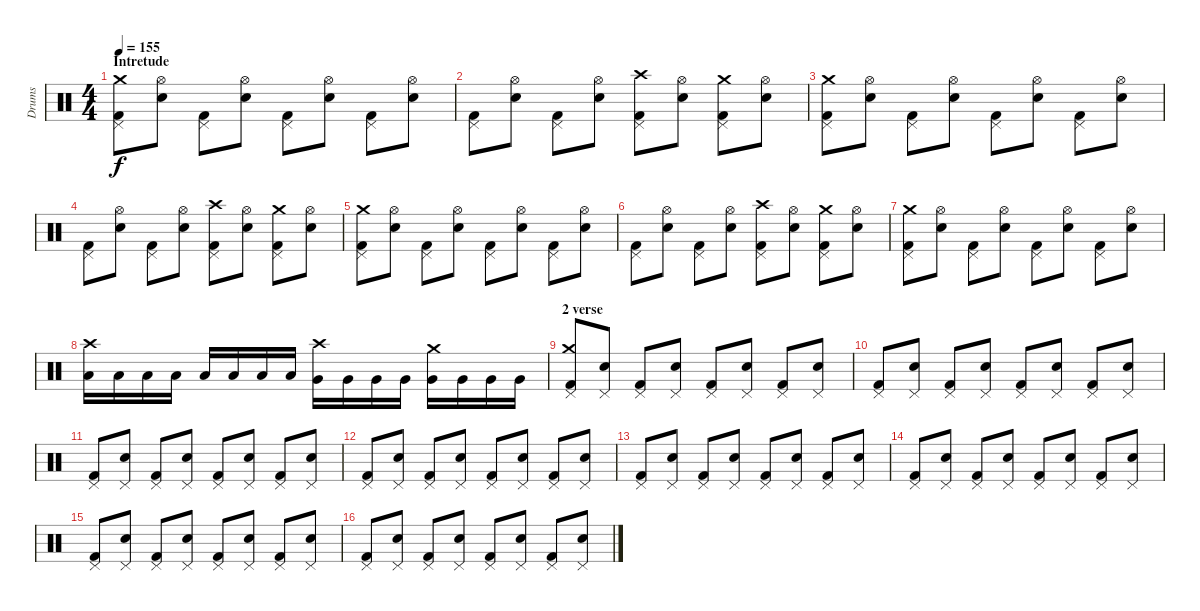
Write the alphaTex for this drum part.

\track ("Drums" "Drums") {instrument percussion}
\staff {score}
\articulation defaults
\ts (4 4)
\section ("" "Intretude")
\tempo 155
\clef neutral
\ks c
("Pedal Hi-Hat (hit)" "Crash medium (hit)" "Kick (hit) 2").8{dy f} ("Hi-Hat (open)" "Electric Snare (hit)").8 ("Pedal Hi-Hat (hit)" "Kick (hit) 2").8 ("Hi-Hat (open)" "Electric Snare (hit)").8 ("Pedal Hi-Hat (hit)" "Kick (hit) 2").8 ("Hi-Hat (open)" "Electric Snare (hit)").8 ("Pedal Hi-Hat (hit)" "Kick (hit) 2").8 ("Hi-Hat (open)" "Electric Snare (hit)").8 |
("Pedal Hi-Hat (hit)" "Kick (hit) 2").8 ("Hi-Hat (open)" "Electric Snare (hit)").8 ("Pedal Hi-Hat (hit)" "Kick (hit) 2").8 ("Hi-Hat (open)" "Electric Snare (hit)").8 ("Pedal Hi-Hat (hit)" "Crash high (hit)" "Kick (hit) 2").8 ("Hi-Hat (open)" "Electric Snare (hit)").8 ("Pedal Hi-Hat (hit)" "Crash medium (hit)" "Kick (hit) 2").8 ("Hi-Hat (open)" "Electric Snare (hit)").8 |
("Pedal Hi-Hat (hit)" "Crash medium (hit)" "Kick (hit) 2").8 ("Hi-Hat (open)" "Electric Snare (hit)").8 ("Pedal Hi-Hat (hit)" "Kick (hit) 2").8 ("Hi-Hat (open)" "Electric Snare (hit)").8 ("Pedal Hi-Hat (hit)" "Kick (hit) 2").8 ("Hi-Hat (open)" "Electric Snare (hit)").8 ("Pedal Hi-Hat (hit)" "Kick (hit) 2").8 ("Hi-Hat (open)" "Electric Snare (hit)").8 |
("Pedal Hi-Hat (hit)" "Kick (hit) 2").8 ("Hi-Hat (open)" "Electric Snare (hit)").8 ("Pedal Hi-Hat (hit)" "Kick (hit) 2").8 ("Hi-Hat (open)" "Electric Snare (hit)").8 ("Pedal Hi-Hat (hit)" "Crash high (hit)" "Kick (hit) 2").8 ("Hi-Hat (open)" "Electric Snare (hit)").8 ("Pedal Hi-Hat (hit)" "Crash medium (hit)" "Kick (hit) 2").8 ("Hi-Hat (open)" "Electric Snare (hit)").8 |
("Pedal Hi-Hat (hit)" "Crash medium (hit)" "Kick (hit) 2").8 ("Hi-Hat (open)" "Electric Snare (hit)").8 ("Pedal Hi-Hat (hit)" "Kick (hit) 2").8 ("Hi-Hat (open)" "Electric Snare (hit)").8 ("Pedal Hi-Hat (hit)" "Kick (hit) 2").8 ("Hi-Hat (open)" "Electric Snare (hit)").8 ("Pedal Hi-Hat (hit)" "Kick (hit) 2").8 ("Hi-Hat (open)" "Electric Snare (hit)").8 |
("Pedal Hi-Hat (hit)" "Kick (hit) 2").8 ("Hi-Hat (open)" "Electric Snare (hit)").8 ("Pedal Hi-Hat (hit)" "Kick (hit) 2").8 ("Hi-Hat (open)" "Electric Snare (hit)").8 ("Pedal Hi-Hat (hit)" "Crash high (hit)" "Kick (hit) 2").8 ("Hi-Hat (open)" "Electric Snare (hit)").8 ("Pedal Hi-Hat (hit)" "Crash medium (hit)" "Kick (hit) 2").8 ("Hi-Hat (open)" "Electric Snare (hit)").8 |
("Pedal Hi-Hat (hit)" "Crash medium (hit)" "Kick (hit) 2").8 ("Hi-Hat (open)" "Electric Snare (hit)").8 ("Pedal Hi-Hat (hit)" "Kick (hit) 2").8 ("Hi-Hat (open)" "Electric Snare (hit)").8 ("Pedal Hi-Hat (hit)" "Kick (hit) 2").8 ("Hi-Hat (open)" "Electric Snare (hit)").8 ("Pedal Hi-Hat (hit)" "Kick (hit) 2").8 ("Hi-Hat (open)" "Electric Snare (hit)").8 |
("Crash high (hit)" "Low Tom (hit)").16 "Low Tom (hit)".16 "Low Tom (hit)".16 "Low Tom (hit)".16 "Low Tom (hit)".16 "Low Tom (hit)".16 "Low Tom (hit)".16 "Low Tom (hit)".16 ("Crash high (hit)" "Very Low Tom (hit)").16 "Very Low Tom (hit)".16 "Very Low Tom (hit)".16 "Very Low Tom (hit)".16 ("Crash medium (hit)" "Very Low Tom (hit)").16 "Very Low Tom (hit)".16 "Very Low Tom (hit)".16 "Very Low Tom (hit)".16 |
\section ("" "2 verse")
("Pedal Hi-Hat (hit)" "Crash medium (hit)" "Kick (hit) 2").8 ("Pedal Hi-Hat (hit)" "Electric Snare (hit)").8 ("Pedal Hi-Hat (hit)" "Kick (hit) 2").8 ("Pedal Hi-Hat (hit)" "Electric Snare (hit)").8 ("Pedal Hi-Hat (hit)" "Kick (hit) 2").8 ("Pedal Hi-Hat (hit)" "Electric Snare (hit)").8 ("Pedal Hi-Hat (hit)" "Kick (hit) 2").8 ("Pedal Hi-Hat (hit)" "Electric Snare (hit)").8 |
("Pedal Hi-Hat (hit)" "Kick (hit) 2").8 ("Pedal Hi-Hat (hit)" "Electric Snare (hit)").8 ("Pedal Hi-Hat (hit)" "Kick (hit) 2").8 ("Pedal Hi-Hat (hit)" "Electric Snare (hit)").8 ("Pedal Hi-Hat (hit)" "Kick (hit) 2").8 ("Pedal Hi-Hat (hit)" "Electric Snare (hit)").8 ("Pedal Hi-Hat (hit)" "Kick (hit) 2").8 ("Pedal Hi-Hat (hit)" "Electric Snare (hit)").8 |
("Pedal Hi-Hat (hit)" "Kick (hit) 2").8 ("Pedal Hi-Hat (hit)" "Electric Snare (hit)").8 ("Pedal Hi-Hat (hit)" "Kick (hit) 2").8 ("Pedal Hi-Hat (hit)" "Electric Snare (hit)").8 ("Pedal Hi-Hat (hit)" "Kick (hit) 2").8 ("Pedal Hi-Hat (hit)" "Electric Snare (hit)").8 ("Pedal Hi-Hat (hit)" "Kick (hit) 2").8 ("Pedal Hi-Hat (hit)" "Electric Snare (hit)").8 |
("Pedal Hi-Hat (hit)" "Kick (hit) 2").8 ("Pedal Hi-Hat (hit)" "Electric Snare (hit)").8 ("Pedal Hi-Hat (hit)" "Kick (hit) 2").8 ("Pedal Hi-Hat (hit)" "Electric Snare (hit)").8 ("Pedal Hi-Hat (hit)" "Kick (hit) 2").8 ("Pedal Hi-Hat (hit)" "Electric Snare (hit)").8 ("Pedal Hi-Hat (hit)" "Kick (hit) 2").8 ("Pedal Hi-Hat (hit)" "Electric Snare (hit)").8 |
("Pedal Hi-Hat (hit)" "Kick (hit) 2").8 ("Pedal Hi-Hat (hit)" "Electric Snare (hit)").8 ("Pedal Hi-Hat (hit)" "Kick (hit) 2").8 ("Pedal Hi-Hat (hit)" "Electric Snare (hit)").8 ("Pedal Hi-Hat (hit)" "Kick (hit) 2").8 ("Pedal Hi-Hat (hit)" "Electric Snare (hit)").8 ("Pedal Hi-Hat (hit)" "Kick (hit) 2").8 ("Pedal Hi-Hat (hit)" "Electric Snare (hit)").8 |
("Pedal Hi-Hat (hit)" "Kick (hit) 2").8 ("Pedal Hi-Hat (hit)" "Electric Snare (hit)").8 ("Pedal Hi-Hat (hit)" "Kick (hit) 2").8 ("Pedal Hi-Hat (hit)" "Electric Snare (hit)").8 ("Pedal Hi-Hat (hit)" "Kick (hit) 2").8 ("Pedal Hi-Hat (hit)" "Electric Snare (hit)").8 ("Pedal Hi-Hat (hit)" "Kick (hit) 2").8 ("Pedal Hi-Hat (hit)" "Electric Snare (hit)").8 |
("Pedal Hi-Hat (hit)" "Kick (hit) 2").8 ("Pedal Hi-Hat (hit)" "Electric Snare (hit)").8 ("Pedal Hi-Hat (hit)" "Kick (hit) 2").8 ("Pedal Hi-Hat (hit)" "Electric Snare (hit)").8 ("Pedal Hi-Hat (hit)" "Kick (hit) 2").8 ("Pedal Hi-Hat (hit)" "Electric Snare (hit)").8 ("Pedal Hi-Hat (hit)" "Kick (hit) 2").8 ("Pedal Hi-Hat (hit)" "Electric Snare (hit)").8 |
("Pedal Hi-Hat (hit)" "Kick (hit) 2").8 ("Pedal Hi-Hat (hit)" "Electric Snare (hit)").8 ("Pedal Hi-Hat (hit)" "Kick (hit) 2").8 ("Pedal Hi-Hat (hit)" "Electric Snare (hit)").8 ("Pedal Hi-Hat (hit)" "Kick (hit) 2").8 ("Pedal Hi-Hat (hit)" "Electric Snare (hit)").8 ("Pedal Hi-Hat (hit)" "Kick (hit) 2").8 ("Pedal Hi-Hat (hit)" "Electric Snare (hit)").8
